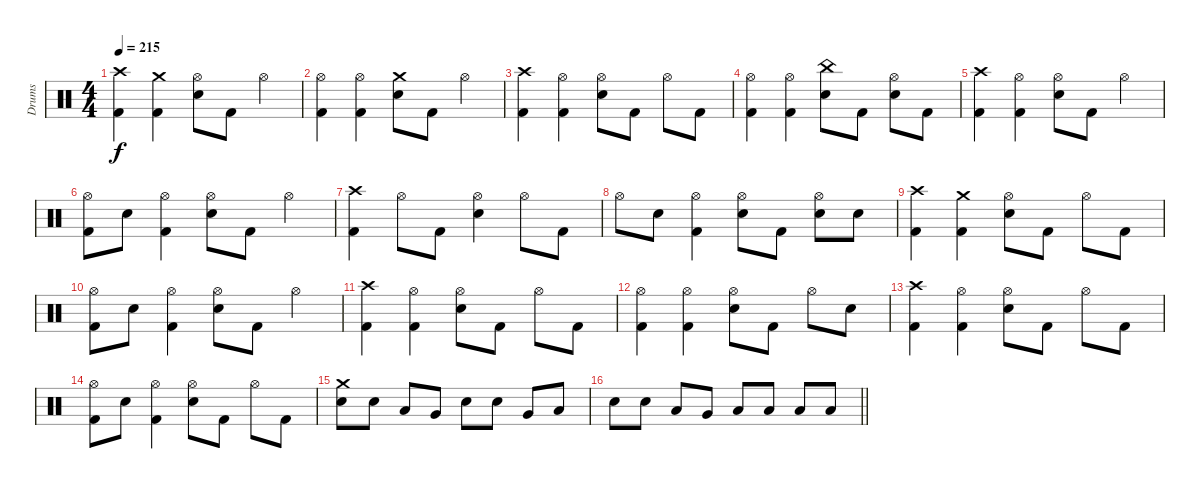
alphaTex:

\track ("Drums" "Drums") {instrument percussion}
\staff {score}
\articulation defaults
\ts (4 4)
\tempo 215
\clef neutral
\ks c
("Crash high (hit)" "Kick (hit) 2").4{dy f} ("Crash medium (hit)" "Kick (hit) 2").4 ("Hi-Hat (open)" "Snare (hit) 2").8 "Kick (hit) 2".8 "Hi-Hat (open)".4 |
("Hi-Hat (open)" "Kick (hit) 2").4 ("Hi-Hat (open)" "Kick (hit) 2").4 ("Crash medium (hit)" "Snare (hit) 2").8 "Kick (hit) 2".8 "Hi-Hat (open)".4 |
("Crash high (hit)" "Kick (hit) 2").4 ("Hi-Hat (open)" "Kick (hit) 2").4 ("Hi-Hat (open)" "Snare (hit) 2").8 "Kick (hit) 2".8 "Hi-Hat (open)".8 "Kick (hit) 2".8 |
("Hi-Hat (open)" "Kick (hit) 2").4 ("Hi-Hat (open)" "Kick (hit) 2").4 ("China (hit)" "Snare (hit) 2").8 "Kick (hit) 2".8 ("Hi-Hat (open)" "Snare (hit) 2").8 "Kick (hit) 2".8 |
("Crash high (hit)" "Kick (hit) 2").4 ("Hi-Hat (open)" "Kick (hit) 2").4 ("Hi-Hat (open)" "Snare (hit) 2").8 "Kick (hit) 2".8 "Hi-Hat (open)".4 |
("Hi-Hat (open)" "Kick (hit) 2").8 "Snare (hit) 2".8 ("Hi-Hat (open)" "Kick (hit) 2").4 ("Hi-Hat (open)" "Snare (hit) 2").8 "Kick (hit) 2".8 "Hi-Hat (open)".4 |
("Crash high (hit)" "Kick (hit) 2").4 "Hi-Hat (open)".8 "Kick (hit) 2".8 ("Hi-Hat (open)" "Snare (hit) 2").4 "Hi-Hat (open)".8 "Kick (hit) 2".8 |
"Hi-Hat (open)".8 "Snare (hit) 2".8 ("Hi-Hat (open)" "Kick (hit) 2").4 ("Hi-Hat (open)" "Snare (hit) 2").8 "Kick (hit) 2".8 ("Hi-Hat (open)" "Snare (hit) 2").8 "Snare (hit) 2".8 |
("Crash high (hit)" "Kick (hit) 2").4 ("Crash medium (hit)" "Kick (hit) 2").4 ("Hi-Hat (open)" "Snare (hit) 2").8 "Kick (hit) 2".8 "Hi-Hat (open)".8 "Kick (hit) 2".8 |
("Hi-Hat (open)" "Kick (hit) 2").8 "Snare (hit) 2".8 ("Hi-Hat (open)" "Kick (hit) 2").4 ("Hi-Hat (open)" "Snare (hit) 2").8 "Kick (hit) 2".8 "Hi-Hat (open)".4 |
("Crash high (hit)" "Kick (hit) 2").4 ("Hi-Hat (open)" "Kick (hit) 2").4 ("Hi-Hat (open)" "Snare (hit) 2").8 "Kick (hit) 2".8 "Hi-Hat (open)".8 "Kick (hit) 2".8 |
("Hi-Hat (open)" "Kick (hit) 2").4 ("Hi-Hat (open)" "Kick (hit) 2").4 ("Hi-Hat (open)" "Snare (hit) 2").8 "Kick (hit) 2".8 "Hi-Hat (open)".8 "Snare (hit) 2".8 |
("Crash high (hit)" "Kick (hit) 2").4 ("Hi-Hat (open)" "Kick (hit) 2").4 ("Hi-Hat (open)" "Snare (hit) 2").8 "Kick (hit) 2".8 "Hi-Hat (open)".8 "Kick (hit) 2".8 |
("Hi-Hat (open)" "Kick (hit) 2").8 "Snare (hit) 2".8 ("Hi-Hat (open)" "Kick (hit) 2").4 ("Hi-Hat (open)" "Snare (hit) 2").8 "Kick (hit) 2".8 "Hi-Hat (open)".8 "Kick (hit) 2".8 |
("Crash medium (hit)" "Snare (hit) 2").8 "Snare (hit) 2".8 "Low Tom (hit)".8 "Very Low Tom (hit)".8 "Snare (hit) 2".8 "Snare (hit) 2".8 "Very Low Tom (hit)".8 "Low Floor Tom (hit)".8 |
\barLineRight lightlight "Snare (hit) 2".8 "Snare (hit) 2".8 "Low Tom (hit)".8 "Very Low Tom (hit)".8 "Low Floor Tom (hit)".8 "Low Floor Tom (hit)".8 "Low Floor Tom (hit)".8 "Low Floor Tom (hit)".8
